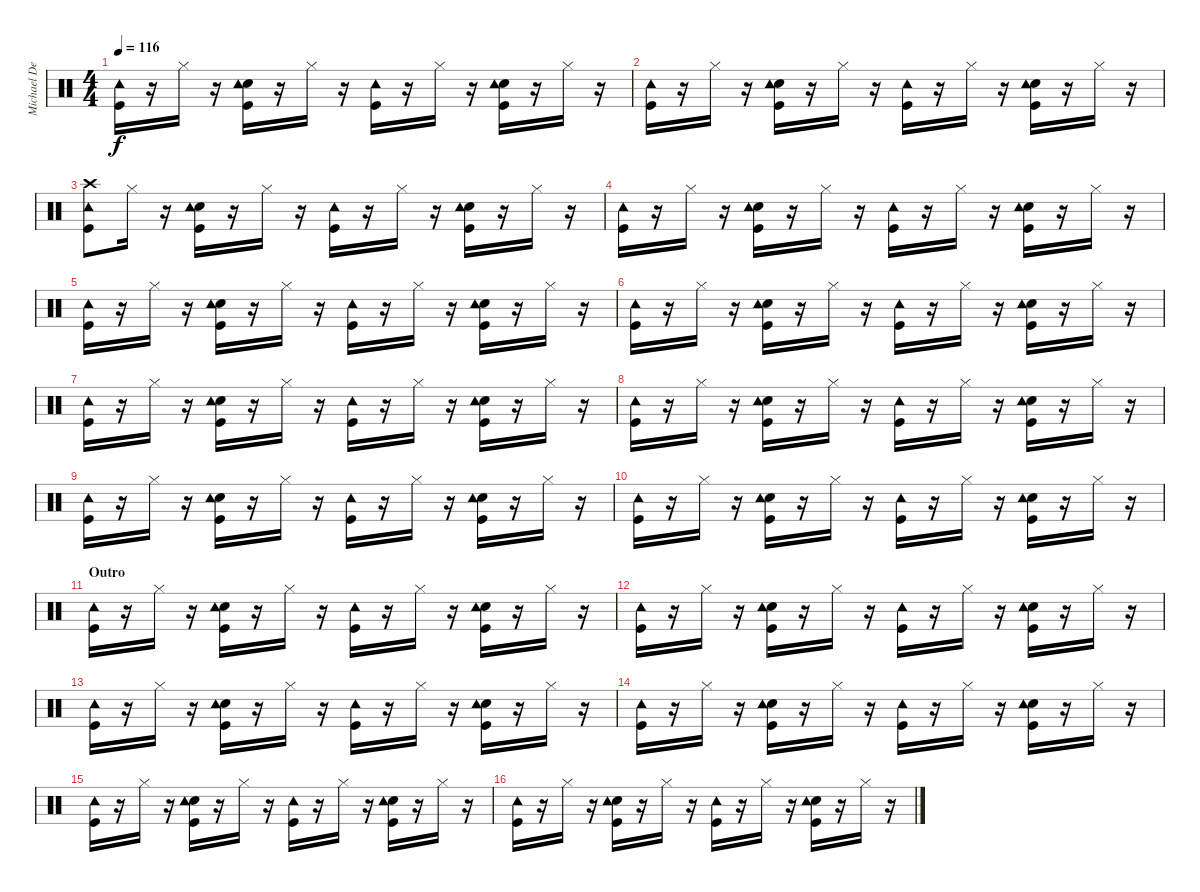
\track ("Michael DeRosier" "Michael De") {instrument percussion}
\staff {score}
\articulation defaults
\ts (4 4)
\tempo 116
\clef neutral
\ks c
("Kick (hit)" "Tambourine (hit)").16{dy f} r.16 "Hi-Hat (closed)".16 r.16 ("Kick (hit)" "Electric Snare (hit)" "Tambourine (hit)").16 r.16 "Hi-Hat (closed)".16 r.16 ("Kick (hit)" "Tambourine (hit)").16 r.16 "Hi-Hat (closed)".16 r.16 ("Kick (hit)" "Electric Snare (hit)" "Tambourine (hit)").16 r.16 "Hi-Hat (closed)".16 r.16 |
("Kick (hit)" "Tambourine (hit)").16 r.16 "Hi-Hat (closed)".16 r.16 ("Kick (hit)" "Electric Snare (hit)" "Tambourine (hit)").16 r.16 "Hi-Hat (closed)".16 r.16 ("Kick (hit)" "Tambourine (hit)").16 r.16 "Hi-Hat (closed)".16 r.16 ("Kick (hit)" "Electric Snare (hit)" "Tambourine (hit)").16 r.16 "Hi-Hat (closed)".16 r.16 |
("Kick (hit)" "Crash high (hit)" "Tambourine (hit)").8 "Hi-Hat (closed)".16 r.16 ("Kick (hit)" "Electric Snare (hit)" "Tambourine (hit)").16 r.16 "Hi-Hat (closed)".16 r.16 ("Kick (hit)" "Tambourine (hit)").16 r.16 "Hi-Hat (closed)".16 r.16 ("Kick (hit)" "Electric Snare (hit)" "Tambourine (hit)").16 r.16 "Hi-Hat (closed)".16 r.16 |
("Kick (hit)" "Tambourine (hit)").16 r.16 "Hi-Hat (closed)".16 r.16 ("Kick (hit)" "Electric Snare (hit)" "Tambourine (hit)").16 r.16 "Hi-Hat (closed)".16 r.16 ("Kick (hit)" "Tambourine (hit)").16 r.16 "Hi-Hat (closed)".16 r.16 ("Kick (hit)" "Electric Snare (hit)" "Tambourine (hit)").16 r.16 "Hi-Hat (closed)".16 r.16 |
("Kick (hit)" "Tambourine (hit)").16 r.16 "Hi-Hat (closed)".16 r.16 ("Kick (hit)" "Electric Snare (hit)" "Tambourine (hit)").16 r.16 "Hi-Hat (closed)".16 r.16 ("Kick (hit)" "Tambourine (hit)").16 r.16 "Hi-Hat (closed)".16 r.16 ("Kick (hit)" "Electric Snare (hit)" "Tambourine (hit)").16 r.16 "Hi-Hat (closed)".16 r.16 |
("Kick (hit)" "Tambourine (hit)").16 r.16 "Hi-Hat (closed)".16 r.16 ("Kick (hit)" "Electric Snare (hit)" "Tambourine (hit)").16 r.16 "Hi-Hat (closed)".16 r.16 ("Kick (hit)" "Tambourine (hit)").16 r.16 "Hi-Hat (closed)".16 r.16 ("Kick (hit)" "Electric Snare (hit)" "Tambourine (hit)").16 r.16 "Hi-Hat (closed)".16 r.16 |
("Kick (hit)" "Tambourine (hit)").16 r.16 "Hi-Hat (closed)".16 r.16 ("Kick (hit)" "Electric Snare (hit)" "Tambourine (hit)").16 r.16 "Hi-Hat (closed)".16 r.16 ("Kick (hit)" "Tambourine (hit)").16 r.16 "Hi-Hat (closed)".16 r.16 ("Kick (hit)" "Electric Snare (hit)" "Tambourine (hit)").16 r.16 "Hi-Hat (closed)".16 r.16 |
("Kick (hit)" "Tambourine (hit)").16 r.16 "Hi-Hat (closed)".16 r.16 ("Kick (hit)" "Electric Snare (hit)" "Tambourine (hit)").16 r.16 "Hi-Hat (closed)".16 r.16 ("Kick (hit)" "Tambourine (hit)").16 r.16 "Hi-Hat (closed)".16 r.16 ("Kick (hit)" "Electric Snare (hit)" "Tambourine (hit)").16 r.16 "Hi-Hat (closed)".16 r.16 |
("Kick (hit)" "Tambourine (hit)").16 r.16 "Hi-Hat (closed)".16 r.16 ("Kick (hit)" "Electric Snare (hit)" "Tambourine (hit)").16 r.16 "Hi-Hat (closed)".16 r.16 ("Kick (hit)" "Tambourine (hit)").16 r.16 "Hi-Hat (closed)".16 r.16 ("Kick (hit)" "Electric Snare (hit)" "Tambourine (hit)").16 r.16 "Hi-Hat (closed)".16 r.16 |
("Kick (hit)" "Tambourine (hit)").16 r.16 "Hi-Hat (closed)".16 r.16 ("Kick (hit)" "Electric Snare (hit)" "Tambourine (hit)").16 r.16 "Hi-Hat (closed)".16 r.16 ("Kick (hit)" "Tambourine (hit)").16 r.16 "Hi-Hat (closed)".16 r.16 ("Kick (hit)" "Electric Snare (hit)" "Tambourine (hit)").16 r.16 "Hi-Hat (closed)".16 r.16 |
\section ("" "Outro")
("Kick (hit)" "Tambourine (hit)").16 r.16 "Hi-Hat (closed)".16 r.16 ("Kick (hit)" "Electric Snare (hit)" "Tambourine (hit)").16 r.16 "Hi-Hat (closed)".16 r.16 ("Kick (hit)" "Tambourine (hit)").16 r.16 "Hi-Hat (closed)".16 r.16 ("Kick (hit)" "Electric Snare (hit)" "Tambourine (hit)").16 r.16 "Hi-Hat (closed)".16 r.16 |
("Kick (hit)" "Tambourine (hit)").16 r.16 "Hi-Hat (closed)".16 r.16 ("Kick (hit)" "Electric Snare (hit)" "Tambourine (hit)").16 r.16 "Hi-Hat (closed)".16 r.16 ("Kick (hit)" "Tambourine (hit)").16 r.16 "Hi-Hat (closed)".16 r.16 ("Kick (hit)" "Electric Snare (hit)" "Tambourine (hit)").16 r.16 "Hi-Hat (closed)".16 r.16 |
("Kick (hit)" "Tambourine (hit)").16 r.16 "Hi-Hat (closed)".16 r.16 ("Kick (hit)" "Electric Snare (hit)" "Tambourine (hit)").16 r.16 "Hi-Hat (closed)".16 r.16 ("Kick (hit)" "Tambourine (hit)").16 r.16 "Hi-Hat (closed)".16 r.16 ("Kick (hit)" "Electric Snare (hit)" "Tambourine (hit)").16 r.16 "Hi-Hat (closed)".16 r.16 |
("Kick (hit)" "Tambourine (hit)").16 r.16 "Hi-Hat (closed)".16 r.16 ("Kick (hit)" "Electric Snare (hit)" "Tambourine (hit)").16 r.16 "Hi-Hat (closed)".16 r.16 ("Kick (hit)" "Tambourine (hit)").16 r.16 "Hi-Hat (closed)".16 r.16 ("Kick (hit)" "Electric Snare (hit)" "Tambourine (hit)").16 r.16 "Hi-Hat (closed)".16 r.16 |
("Kick (hit)" "Tambourine (hit)").16{volume 7} r.16 "Hi-Hat (closed)".16 r.16 ("Kick (hit)" "Electric Snare (hit)" "Tambourine (hit)").16 r.16 "Hi-Hat (closed)".16 r.16 ("Kick (hit)" "Tambourine (hit)").16 r.16 "Hi-Hat (closed)".16 r.16 ("Kick (hit)" "Electric Snare (hit)" "Tambourine (hit)").16 r.16 "Hi-Hat (closed)".16 r.16 |
("Kick (hit)" "Tambourine (hit)").16 r.16 "Hi-Hat (closed)".16 r.16 ("Kick (hit)" "Electric Snare (hit)" "Tambourine (hit)").16 r.16 "Hi-Hat (closed)".16 r.16 ("Kick (hit)" "Tambourine (hit)").16 r.16 "Hi-Hat (closed)".16 r.16 ("Kick (hit)" "Electric Snare (hit)" "Tambourine (hit)").16 r.16 "Hi-Hat (closed)".16 r.16
